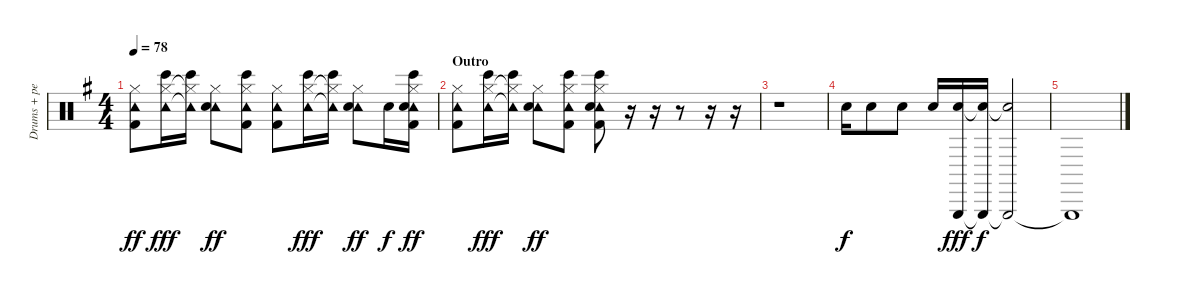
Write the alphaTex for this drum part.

\track ("Drums + percussion" "Drums + pe") {instrument percussion}
\staff {score}
\articulation defaults
\ts (4 4)
\tempo 78
\clef neutral
\ks g
("Tambourine (hit)" "Hi-Hat (closed)" "Kick (hit) 2").8{dy ff} ("Tambourine (hit)" "Hi-Hat (closed)" "Bongo High (hit)").16{dy fff} ("Tambourine (hit)"{t} "Hi-Hat (closed)"{t} "Bongo High (hit)").16 ("Tambourine (hit)" "Hi-Hat (closed)" "Snare (hit) 2").8{dy ff} ("Tambourine (hit)" "Hi-Hat (closed)" "Bongo High (hit)" "Kick (hit) 2").8 ("Tambourine (hit)" "Hi-Hat (closed)" "Kick (hit) 2").8 ("Tambourine (hit)" "Hi-Hat (closed)" "Bongo High (hit)").16{dy fff} ("Tambourine (hit)"{t} "Hi-Hat (closed)"{t} "Bongo High (hit)").16 ("Tambourine (hit)" "Hi-Hat (closed)" "Snare (hit) 2").8{dy ff} "Snare (hit) 2".16{dy f} ("Tambourine (hit)" "Hi-Hat (closed)" "Bongo High (hit)" "Snare (hit) 2" "Kick (hit) 2").16{dy ff} |
\section ("" "Outro")
("Tambourine (hit)" "Hi-Hat (closed)" "Kick (hit) 2").8 ("Tambourine (hit)" "Hi-Hat (closed)" "Bongo High (hit)").16{dy fff} ("Tambourine (hit)"{t} "Hi-Hat (closed)"{t} "Bongo High (hit)").16 ("Tambourine (hit)" "Hi-Hat (closed)" "Snare (hit) 2").8{dy ff} ("Tambourine (hit)" "Hi-Hat (closed)" "Bongo High (hit)" "Kick (hit) 2").8 ("Tambourine (hit)" "Hi-Hat (closed)" "Bongo High (hit)" "Snare (hit) 2" "Kick (hit) 2").8 r.16 r.16 r.8 r.16 r.16 |
r.1 |
"Electric Snare (hit)".16{dy f volume 14} "Electric Snare (hit)".8 "Electric Snare (hit)".8 "Electric Snare (hit)".16 ("Triangle (hit)" "Electric Snare (hit)").16{dy fff} ("Triangle (hit)"{t} "Electric Snare (hit)"{t}).16{dy f} ("Triangle (hit)"{t} "Electric Snare (hit)"{t}).2 |
"Triangle (hit)"{t}.1
